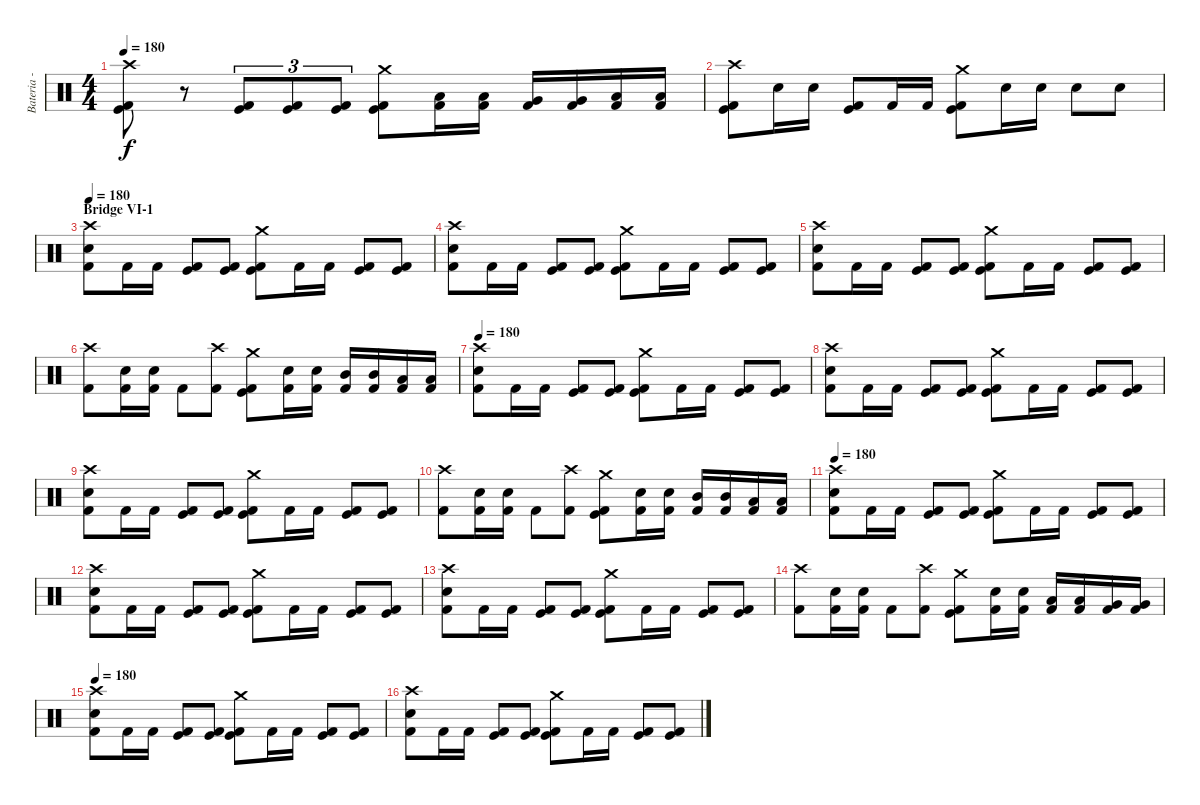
\track ("Bateria - Drums" "Bateria - ") {instrument percussion}
\staff {score}
\articulation defaults
\ts (4 4)
\tempo 180
\clef neutral
\ks c
("Crash high (hit)" "Kick (hit)" "Kick (hit) 2").8{dy f} r.8 ("Kick (hit)" "Kick (hit) 2").8{tu (3 2)} ("Kick (hit)" "Kick (hit) 2").8{tu (3 2)} ("Kick (hit)" "Kick (hit) 2").8{tu (3 2)} ("Crash medium (hit)" "Kick (hit)" "Kick (hit) 2").8 ("Low Tom (hit)" "Kick (hit) 2").16 ("Low Tom (hit)" "Kick (hit) 2").16 ("Very Low Tom (hit)" "Kick (hit) 2").16 ("Very Low Tom (hit)" "Kick (hit) 2").16 ("Low Floor Tom (hit)" "Kick (hit) 2").16 ("Low Floor Tom (hit)" "Kick (hit) 2").16 |
("Crash high (hit)" "Kick (hit)" "Kick (hit) 2").8 "Electric Snare (hit)".16 "Electric Snare (hit)".16 ("Kick (hit)" "Kick (hit) 2").8 "Kick (hit) 2".16 "Kick (hit) 2".16 ("Crash medium (hit)" "Kick (hit)" "Kick (hit) 2").8 "Snare (hit) 2".16 "Snare (hit) 2".16 "Snare (hit) 2".8 "Snare (hit) 2".8 |
\section ("" "Bridge VI-1")
\tempo 180
("Crash high (hit)" "Snare (hit) 2" "Kick (hit) 2").8 "Kick (hit) 2".16 "Kick (hit) 2".16 ("Kick (hit)" "Kick (hit) 2").8 ("Kick (hit)" "Kick (hit) 2").8 ("Crash medium (hit)" "Kick (hit)" "Kick (hit) 2").8 "Kick (hit) 2".16 "Kick (hit) 2".16 ("Kick (hit)" "Kick (hit) 2").8 ("Kick (hit)" "Kick (hit) 2").8 |
("Crash high (hit)" "Snare (hit) 2" "Kick (hit) 2").8 "Kick (hit) 2".16 "Kick (hit) 2".16 ("Kick (hit)" "Kick (hit) 2").8 ("Kick (hit)" "Kick (hit) 2").8 ("Crash medium (hit)" "Kick (hit)" "Kick (hit) 2").8 "Kick (hit) 2".16 "Kick (hit) 2".16 ("Kick (hit)" "Kick (hit) 2").8 ("Kick (hit)" "Kick (hit) 2").8 |
("Crash high (hit)" "Snare (hit) 2" "Kick (hit) 2").8 "Kick (hit) 2".16 "Kick (hit) 2".16 ("Kick (hit)" "Kick (hit) 2").8 ("Kick (hit)" "Kick (hit) 2").8 ("Crash medium (hit)" "Kick (hit)" "Kick (hit) 2").8 "Kick (hit) 2".16 "Kick (hit) 2".16 ("Kick (hit)" "Kick (hit) 2").8 ("Kick (hit)" "Kick (hit) 2").8 |
("Crash high (hit)" "Kick (hit) 2").8 ("Snare (hit) 2" "Kick (hit) 2").16 ("Snare (hit) 2" "Kick (hit) 2").16 "Kick (hit) 2".8 ("Crash high (hit)" "Kick (hit) 2").8 ("Crash medium (hit)" "Kick (hit)" "Kick (hit) 2").8 ("Electric Snare (hit)" "Kick (hit) 2").16 ("Electric Snare (hit)" "Kick (hit) 2").16 ("Mid Tom (hit)" "Kick (hit) 2").16 ("Mid Tom (hit)" "Kick (hit) 2").16 ("Low Tom (hit)" "Kick (hit) 2").16 ("Low Tom (hit)" "Kick (hit) 2").16 |
\tempo 180
("Crash high (hit)" "Snare (hit) 2" "Kick (hit) 2").8 "Kick (hit) 2".16 "Kick (hit) 2".16 ("Kick (hit)" "Kick (hit) 2").8 ("Kick (hit)" "Kick (hit) 2").8 ("Crash medium (hit)" "Kick (hit)" "Kick (hit) 2").8 "Kick (hit) 2".16 "Kick (hit) 2".16 ("Kick (hit)" "Kick (hit) 2").8 ("Kick (hit)" "Kick (hit) 2").8 |
("Crash high (hit)" "Snare (hit) 2" "Kick (hit) 2").8 "Kick (hit) 2".16 "Kick (hit) 2".16 ("Kick (hit)" "Kick (hit) 2").8 ("Kick (hit)" "Kick (hit) 2").8 ("Crash medium (hit)" "Kick (hit)" "Kick (hit) 2").8 "Kick (hit) 2".16 "Kick (hit) 2".16 ("Kick (hit)" "Kick (hit) 2").8 ("Kick (hit)" "Kick (hit) 2").8 |
("Crash high (hit)" "Snare (hit) 2" "Kick (hit) 2").8 "Kick (hit) 2".16 "Kick (hit) 2".16 ("Kick (hit)" "Kick (hit) 2").8 ("Kick (hit)" "Kick (hit) 2").8 ("Crash medium (hit)" "Kick (hit)" "Kick (hit) 2").8 "Kick (hit) 2".16 "Kick (hit) 2".16 ("Kick (hit)" "Kick (hit) 2").8 ("Kick (hit)" "Kick (hit) 2").8 |
("Crash high (hit)" "Kick (hit) 2").8 ("Snare (hit) 2" "Kick (hit) 2").16 ("Snare (hit) 2" "Kick (hit) 2").16 "Kick (hit) 2".8 ("Crash high (hit)" "Kick (hit) 2").8 ("Crash medium (hit)" "Kick (hit)" "Kick (hit) 2").8 ("Electric Snare (hit)" "Kick (hit) 2").16 ("Electric Snare (hit)" "Kick (hit) 2").16 ("Mid Tom (hit)" "Kick (hit) 2").16 ("Mid Tom (hit)" "Kick (hit) 2").16 ("Low Tom (hit)" "Kick (hit) 2").16 ("Low Tom (hit)" "Kick (hit) 2").16 |
\tempo 180
("Crash high (hit)" "Snare (hit) 2" "Kick (hit) 2").8 "Kick (hit) 2".16 "Kick (hit) 2".16 ("Kick (hit)" "Kick (hit) 2").8 ("Kick (hit)" "Kick (hit) 2").8 ("Crash medium (hit)" "Kick (hit)" "Kick (hit) 2").8 "Kick (hit) 2".16 "Kick (hit) 2".16 ("Kick (hit)" "Kick (hit) 2").8 ("Kick (hit)" "Kick (hit) 2").8 |
("Crash high (hit)" "Snare (hit) 2" "Kick (hit) 2").8 "Kick (hit) 2".16 "Kick (hit) 2".16 ("Kick (hit)" "Kick (hit) 2").8 ("Kick (hit)" "Kick (hit) 2").8 ("Crash medium (hit)" "Kick (hit)" "Kick (hit) 2").8 "Kick (hit) 2".16 "Kick (hit) 2".16 ("Kick (hit)" "Kick (hit) 2").8 ("Kick (hit)" "Kick (hit) 2").8 |
("Crash high (hit)" "Snare (hit) 2" "Kick (hit) 2").8 "Kick (hit) 2".16 "Kick (hit) 2".16 ("Kick (hit)" "Kick (hit) 2").8 ("Kick (hit)" "Kick (hit) 2").8 ("Crash medium (hit)" "Kick (hit)" "Kick (hit) 2").8 "Kick (hit) 2".16 "Kick (hit) 2".16 ("Kick (hit)" "Kick (hit) 2").8 ("Kick (hit)" "Kick (hit) 2").8 |
("Crash high (hit)" "Kick (hit) 2").8 ("Snare (hit) 2" "Kick (hit) 2").16 ("Snare (hit) 2" "Kick (hit) 2").16 "Kick (hit) 2".8 ("Crash high (hit)" "Kick (hit) 2").8 ("Crash medium (hit)" "Kick (hit)" "Kick (hit) 2").8 ("Electric Snare (hit)" "Kick (hit) 2").16 ("Electric Snare (hit)" "Kick (hit) 2").16 ("Low Tom (hit)" "Kick (hit) 2").16 ("Low Tom (hit)" "Kick (hit) 2").16 ("Very Low Tom (hit)" "Kick (hit) 2").16 ("Very Low Tom (hit)" "Kick (hit) 2").16 |
\tempo 180
("Crash high (hit)" "Snare (hit) 2" "Kick (hit) 2").8 "Kick (hit) 2".16 "Kick (hit) 2".16 ("Kick (hit)" "Kick (hit) 2").8 ("Kick (hit)" "Kick (hit) 2").8 ("Crash medium (hit)" "Kick (hit)" "Kick (hit) 2").8 "Kick (hit) 2".16 "Kick (hit) 2".16 ("Kick (hit)" "Kick (hit) 2").8 ("Kick (hit)" "Kick (hit) 2").8 |
("Crash high (hit)" "Snare (hit) 2" "Kick (hit) 2").8 "Kick (hit) 2".16 "Kick (hit) 2".16 ("Kick (hit)" "Kick (hit) 2").8 ("Kick (hit)" "Kick (hit) 2").8 ("Crash medium (hit)" "Kick (hit)" "Kick (hit) 2").8 "Kick (hit) 2".16 "Kick (hit) 2".16 ("Kick (hit)" "Kick (hit) 2").8 ("Kick (hit)" "Kick (hit) 2").8
